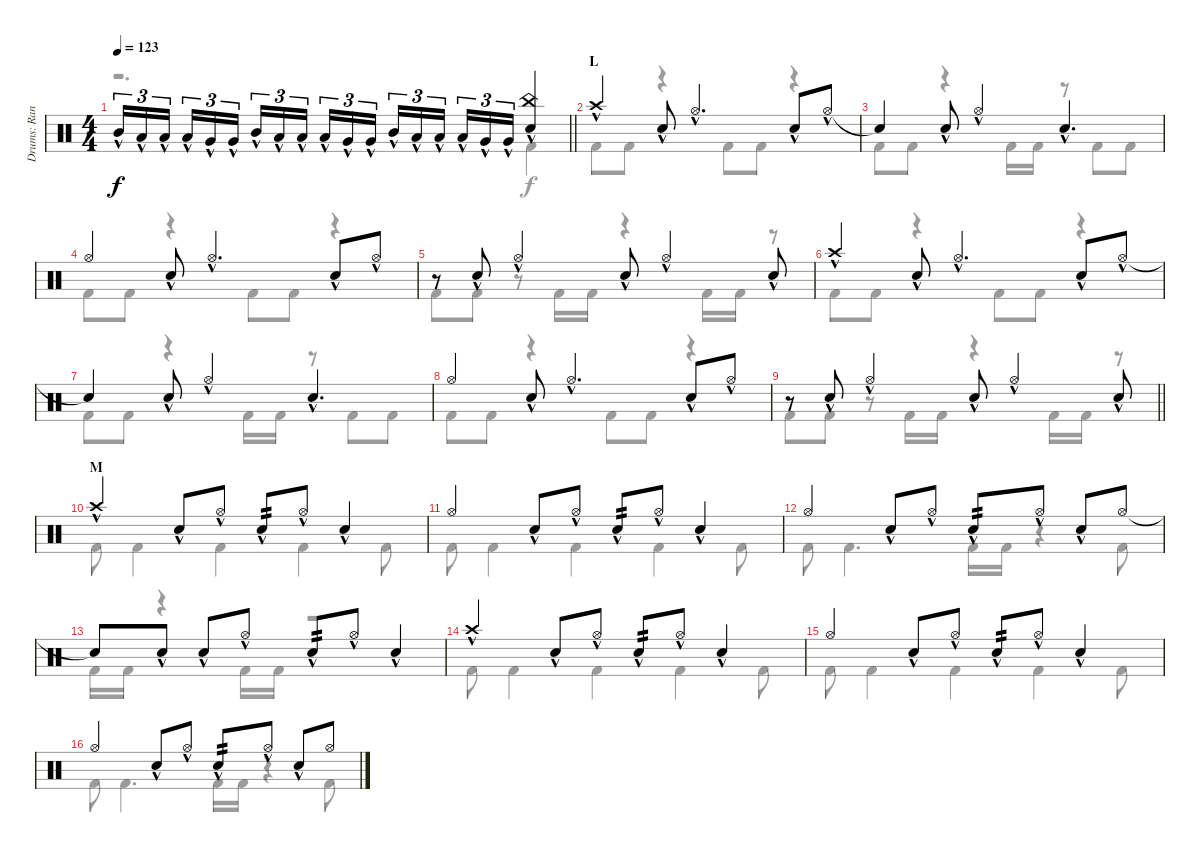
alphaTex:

\track ("Drums: Randy" "Drums: Ran") {instrument percussion}
\staff {score}
\articulation defaults
\voice
\ts (4 4)
\tempo 123
\clef neutral
\barLineRight lightlight
\ks c "Mid Tom (hit)"{hac}.16{tu (3 2) dy f} "Low Tom (hit)"{hac}.16{tu (3 2)} "Low Tom (hit)"{hac}.16{tu (3 2) beam splitsecondary} "Low Tom (hit)"{hac}.16{tu (3 2)} "Very Low Tom (hit)"{hac}.16{tu (3 2)} "Very Low Tom (hit)"{hac}.16{tu (3 2)} "Mid Tom (hit)"{hac}.16{tu (3 2)} "Low Tom (hit)"{hac}.16{tu (3 2)} "Low Tom (hit)"{hac}.16{tu (3 2) beam splitsecondary} "Low Tom (hit)"{hac}.16{tu (3 2)} "Very Low Tom (hit)"{hac}.16{tu (3 2)} "Very Low Tom (hit)"{hac}.16{tu (3 2)} "Mid Tom (hit)"{hac}.16{tu (3 2)} "Low Tom (hit)"{hac}.16{tu (3 2)} "Low Tom (hit)"{hac}.16{tu (3 2) beam splitsecondary} "Low Tom (hit)"{hac}.16{tu (3 2)} "Very Low Tom (hit)"{hac}.16{tu (3 2)} "Very Low Tom (hit)"{hac}.16{tu (3 2)}
("China (hit)" "Snare (hit) 2"{hac}).4 |
\section ("" "L")
"Crash high (hit)"{hac}.4 "Snare (hit) 2"{hac}.8 "Hi-Hat (open)"{hac}.4{d} "Snare (hit) 2"{hac}.8 "Hi-Hat (open)"{hac}.8 |
"Snare (hit)"{t}.4 "Snare (hit) 2"{hac}.8 "Hi-Hat (open)"{hac}.4 "Snare (hit) 2"{hac}.4{d} |
"Hi-Hat (open)".4 "Snare (hit) 2"{hac}.8 "Hi-Hat (open)"{hac}.4{d} "Snare (hit) 2"{hac}.8 "Hi-Hat (open)"{hac}.8 |
r.8 "Snare (hit) 2"{hac}.8 "Hi-Hat (open)"{hac}.4 "Snare (hit) 2"{hac}.8 "Hi-Hat (open)"{hac}.4 "Snare (hit) 2"{hac}.8 |
"Crash high (hit)"{hac}.4 "Snare (hit) 2"{hac}.8 "Hi-Hat (open)"{hac}.4{d} "Snare (hit) 2"{hac}.8 "Hi-Hat (open)"{hac}.8 |
"Snare (hit)"{t}.4 "Snare (hit) 2"{hac}.8 "Hi-Hat (open)"{hac}.4 "Snare (hit) 2"{hac}.4{d} |
"Hi-Hat (open)".4 "Snare (hit) 2"{hac}.8 "Hi-Hat (open)"{hac}.4{d} "Snare (hit) 2"{hac}.8 "Hi-Hat (open)"{hac}.8 |
\barLineRight lightlight
r.8 "Snare (hit) 2"{hac}.8 "Hi-Hat (open)"{hac}.4 "Snare (hit) 2"{hac}.8 "Hi-Hat (open)"{hac}.4 "Snare (hit) 2"{hac}.8 |
\section ("" "M")
"Crash high (hit)"{hac}.4 "Snare (hit) 2"{hac}.8 "Hi-Hat (open)"{hac}.8 "Snare (hit) 2"{hac}.8{tp 2} "Hi-Hat (open)"{hac}.8 "Snare (hit) 2"{hac}.4 |
"Hi-Hat (open)".4 "Snare (hit) 2"{hac}.8 "Hi-Hat (open)"{hac}.8 "Snare (hit) 2"{hac}.8{tp 2} "Hi-Hat (open)"{hac}.8 "Snare (hit) 2"{hac}.4 |
"Hi-Hat (open)".4 "Snare (hit) 2"{hac}.8 "Hi-Hat (open)"{hac}.8 "Snare (hit) 2"{hac}.8{tp 2} "Hi-Hat (open)"{hac}.8 "Snare (hit) 2"{hac}.8 "Hi-Hat (open)".8 |
"Snare (hit)"{t}.8 "Snare (hit) 2"{hac}.8 "Snare (hit) 2"{hac}.8 "Hi-Hat (open)"{hac}.8 "Snare (hit) 2"{hac}.8{tp 2} "Hi-Hat (open)"{hac}.8 "Snare (hit) 2"{hac}.4 |
"Crash high (hit)"{hac}.4 "Snare (hit) 2"{hac}.8 "Hi-Hat (open)"{hac}.8 "Snare (hit) 2"{hac}.8{tp 2} "Hi-Hat (open)"{hac}.8 "Snare (hit) 2"{hac}.4 |
"Hi-Hat (open)".4 "Snare (hit) 2"{hac}.8 "Hi-Hat (open)"{hac}.8 "Snare (hit) 2"{hac}.8{tp 2} "Hi-Hat (open)"{hac}.8 "Snare (hit) 2"{hac}.4 |
"Hi-Hat (open)".4 "Snare (hit) 2"{hac}.8 "Hi-Hat (open)"{hac}.8 "Snare (hit) 2"{hac}.8{tp 2} "Hi-Hat (open)"{hac}.8 "Snare (hit) 2"{hac}.8 "Hi-Hat (open)".8
\voice
\clef neutral
\ottava regular
\simile none
\barLineRight lightlight
\ks c
r.2{d dy f} "Kick (hit) 2".4 |
"Kick (hit) 2".8 "Kick (hit) 2".8 r.4 "Kick (hit) 2".8 "Kick (hit) 2".8 r.4 |
"Kick (hit) 2".8 "Kick (hit) 2".8 r.4 "Kick (hit) 2".16 "Kick (hit) 2".16 r.8 "Kick (hit) 2".8 "Kick (hit) 2".8 |
"Kick (hit) 2".8 "Kick (hit) 2".8 r.4 "Kick (hit) 2".8 "Kick (hit) 2".8 r.4 |
"Kick (hit) 2".8 "Kick (hit) 2".8 r.8 "Kick (hit) 2".16 "Kick (hit) 2".16 r.4 "Kick (hit) 2".16 "Kick (hit) 2".16 r.8 |
"Kick (hit) 2".8 "Kick (hit) 2".8 r.4 "Kick (hit) 2".8 "Kick (hit) 2".8 r.4 |
"Kick (hit) 2".8 "Kick (hit) 2".8 r.4 "Kick (hit) 2".16 "Kick (hit) 2".16 r.8 "Kick (hit) 2".8 "Kick (hit) 2".8 |
"Kick (hit) 2".8 "Kick (hit) 2".8 r.4 "Kick (hit) 2".8 "Kick (hit) 2".8 r.4 |
\barLineRight lightlight "Kick (hit) 2".8 "Kick (hit) 2".8
r.8 "Kick (hit) 2".16 "Kick (hit) 2".16 r.4 "Kick (hit) 2".16 "Kick (hit) 2".16 r.8 |
"Kick (hit) 2".8 "Kick (hit) 2".4 "Kick (hit) 2".4 "Kick (hit) 2".4 "Kick (hit) 2".8 |
"Kick (hit) 2".8 "Kick (hit) 2".4 "Kick (hit) 2".4 "Kick (hit) 2".4 "Kick (hit) 2".8 |
"Kick (hit) 2".8 "Kick (hit) 2".4{d} "Kick (hit) 2".16 "Kick (hit) 2".16 r.4 "Kick (hit) 2".8 |
"Kick (hit) 2".16 "Kick (hit) 2".16 r.4 "Kick (hit) 2".16 "Kick (hit) 2".16 r.2 |
"Kick (hit) 2".8 "Kick (hit) 2".4 "Kick (hit) 2".4 "Kick (hit) 2".4 "Kick (hit) 2".8 |
"Kick (hit) 2".8 "Kick (hit) 2".4 "Kick (hit) 2".4 "Kick (hit) 2".4 "Kick (hit) 2".8 |
"Kick (hit) 2".8 "Kick (hit) 2".4{d} "Kick (hit) 2".16 "Kick (hit) 2".16 r.4 "Kick (hit) 2".8
